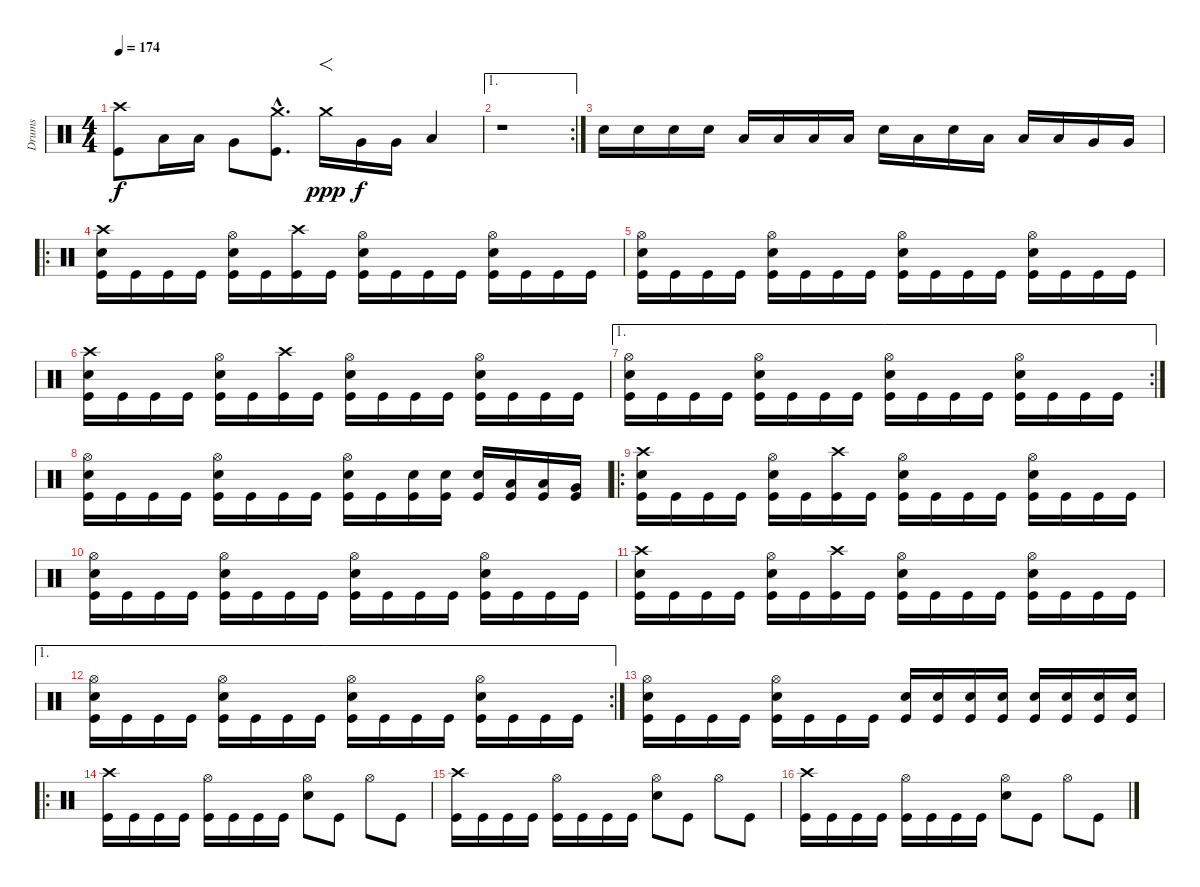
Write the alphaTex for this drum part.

\track ("Drums" "Drums") {instrument percussion}
\staff {score}
\articulation defaults
\ts (4 4)
\tempo 174
\clef neutral
\ks c
("Crash high (hit)" "Kick (hit)").8{dy f} "Low Tom (hit)".16 "Low Tom (hit)".16 "Very Low Tom (hit)".8 ("Crash medium (hit)"{hac} "Kick (hit)"{hac}).8{d} "Crash medium (hit)".16{f dy ppp} "Very Low Tom (hit)".16{dy f} "Very Low Tom (hit)".16 "Low Floor Tom (hit)".4 |
\ae 1
\rc 2
r.1 |
"Electric Snare (hit)".16 "Electric Snare (hit)".16 "Electric Snare (hit)".16 "Electric Snare (hit)".16 "Low Tom (hit)".16 "Low Tom (hit)".16 "Low Tom (hit)".16 "Low Tom (hit)".16 "Electric Snare (hit)".16 "Low Tom (hit)".16 "Electric Snare (hit)".16 "Low Tom (hit)".16 "Low Tom (hit)".16 "Low Tom (hit)".16 "Very Low Tom (hit)".16 "Very Low Tom (hit)".16 |
\ro
("Crash high (hit)" "Electric Snare (hit)" "Kick (hit)").16 "Kick (hit)".16 "Kick (hit)".16 "Kick (hit)".16 ("Hi-Hat (open)" "Electric Snare (hit)" "Kick (hit)").16 "Kick (hit)".16 ("Crash high (hit)" "Kick (hit)").16 "Kick (hit)".16 ("Hi-Hat (open)" "Electric Snare (hit)" "Kick (hit)").16 "Kick (hit)".16 "Kick (hit)".16 "Kick (hit)".16 ("Hi-Hat (open)" "Electric Snare (hit)" "Kick (hit)").16 "Kick (hit)".16 "Kick (hit)".16 "Kick (hit)".16 |
("Hi-Hat (open)" "Electric Snare (hit)" "Kick (hit)").16 "Kick (hit)".16 "Kick (hit)".16 "Kick (hit)".16 ("Hi-Hat (open)" "Electric Snare (hit)" "Kick (hit)").16 "Kick (hit)".16 "Kick (hit)".16 "Kick (hit)".16 ("Hi-Hat (open)" "Electric Snare (hit)" "Kick (hit)").16 "Kick (hit)".16 "Kick (hit)".16 "Kick (hit)".16 ("Hi-Hat (open)" "Electric Snare (hit)" "Kick (hit)").16 "Kick (hit)".16 "Kick (hit)".16 "Kick (hit)".16 |
("Crash high (hit)" "Electric Snare (hit)" "Kick (hit)").16 "Kick (hit)".16 "Kick (hit)".16 "Kick (hit)".16 ("Hi-Hat (open)" "Electric Snare (hit)" "Kick (hit)").16 "Kick (hit)".16 ("Crash high (hit)" "Kick (hit)").16 "Kick (hit)".16 ("Hi-Hat (open)" "Electric Snare (hit)" "Kick (hit)").16 "Kick (hit)".16 "Kick (hit)".16 "Kick (hit)".16 ("Hi-Hat (open)" "Electric Snare (hit)" "Kick (hit)").16 "Kick (hit)".16 "Kick (hit)".16 "Kick (hit)".16 |
\ae 1
\rc 2
("Hi-Hat (open)" "Electric Snare (hit)" "Kick (hit)").16 "Kick (hit)".16 "Kick (hit)".16 "Kick (hit)".16 ("Hi-Hat (open)" "Electric Snare (hit)" "Kick (hit)").16 "Kick (hit)".16 "Kick (hit)".16 "Kick (hit)".16 ("Hi-Hat (open)" "Electric Snare (hit)" "Kick (hit)").16 "Kick (hit)".16 "Kick (hit)".16 "Kick (hit)".16 ("Hi-Hat (open)" "Electric Snare (hit)" "Kick (hit)").16 "Kick (hit)".16 "Kick (hit)".16 "Kick (hit)".16 |
("Hi-Hat (open)" "Electric Snare (hit)" "Kick (hit)").16 "Kick (hit)".16 "Kick (hit)".16 "Kick (hit)".16 ("Hi-Hat (open)" "Electric Snare (hit)" "Kick (hit)").16 "Kick (hit)".16 "Kick (hit)".16 "Kick (hit)".16 ("Hi-Hat (open)" "Electric Snare (hit)" "Kick (hit)").16 "Kick (hit)".16 ("Electric Snare (hit)" "Kick (hit)").16 ("Electric Snare (hit)" "Kick (hit)").16 ("Electric Snare (hit)" "Kick (hit)").16 ("Low Tom (hit)" "Kick (hit)").16 ("Low Tom (hit)" "Kick (hit)").16 ("Very Low Tom (hit)" "Kick (hit)").16 |
\ro
("Crash high (hit)" "Electric Snare (hit)" "Kick (hit)").16 "Kick (hit)".16 "Kick (hit)".16 "Kick (hit)".16 ("Hi-Hat (open)" "Electric Snare (hit)" "Kick (hit)").16 "Kick (hit)".16 ("Crash high (hit)" "Kick (hit)").16 "Kick (hit)".16 ("Hi-Hat (open)" "Electric Snare (hit)" "Kick (hit)").16 "Kick (hit)".16 "Kick (hit)".16 "Kick (hit)".16 ("Hi-Hat (open)" "Electric Snare (hit)" "Kick (hit)").16 "Kick (hit)".16 "Kick (hit)".16 "Kick (hit)".16 |
("Hi-Hat (open)" "Electric Snare (hit)" "Kick (hit)").16 "Kick (hit)".16 "Kick (hit)".16 "Kick (hit)".16 ("Hi-Hat (open)" "Electric Snare (hit)" "Kick (hit)").16 "Kick (hit)".16 "Kick (hit)".16 "Kick (hit)".16 ("Hi-Hat (open)" "Electric Snare (hit)" "Kick (hit)").16 "Kick (hit)".16 "Kick (hit)".16 "Kick (hit)".16 ("Hi-Hat (open)" "Electric Snare (hit)" "Kick (hit)").16 "Kick (hit)".16 "Kick (hit)".16 "Kick (hit)".16 |
("Crash high (hit)" "Electric Snare (hit)" "Kick (hit)").16 "Kick (hit)".16 "Kick (hit)".16 "Kick (hit)".16 ("Hi-Hat (open)" "Electric Snare (hit)" "Kick (hit)").16 "Kick (hit)".16 ("Crash high (hit)" "Kick (hit)").16 "Kick (hit)".16 ("Hi-Hat (open)" "Electric Snare (hit)" "Kick (hit)").16 "Kick (hit)".16 "Kick (hit)".16 "Kick (hit)".16 ("Hi-Hat (open)" "Electric Snare (hit)" "Kick (hit)").16 "Kick (hit)".16 "Kick (hit)".16 "Kick (hit)".16 |
\ae 1
\rc 2
("Hi-Hat (open)" "Electric Snare (hit)" "Kick (hit)").16 "Kick (hit)".16 "Kick (hit)".16 "Kick (hit)".16 ("Hi-Hat (open)" "Electric Snare (hit)" "Kick (hit)").16 "Kick (hit)".16 "Kick (hit)".16 "Kick (hit)".16 ("Hi-Hat (open)" "Electric Snare (hit)" "Kick (hit)").16 "Kick (hit)".16 "Kick (hit)".16 "Kick (hit)".16 ("Hi-Hat (open)" "Electric Snare (hit)" "Kick (hit)").16 "Kick (hit)".16 "Kick (hit)".16 "Kick (hit)".16 |
("Hi-Hat (open)" "Electric Snare (hit)" "Kick (hit)").16 "Kick (hit)".16 "Kick (hit)".16 "Kick (hit)".16 ("Hi-Hat (open)" "Electric Snare (hit)" "Kick (hit)").16 "Kick (hit)".16 "Kick (hit)".16 "Kick (hit)".16 ("Electric Snare (hit)" "Kick (hit)").16 ("Electric Snare (hit)" "Kick (hit)").16 ("Electric Snare (hit)" "Kick (hit)").16 ("Electric Snare (hit)" "Kick (hit)").16 ("Electric Snare (hit)" "Kick (hit)").16 ("Electric Snare (hit)" "Kick (hit)").16 ("Electric Snare (hit)" "Kick (hit)").16 ("Electric Snare (hit)" "Kick (hit)").16 |
\ro
("Crash high (hit)" "Kick (hit)").16 "Kick (hit)".16 "Kick (hit)".16 "Kick (hit)".16 ("Hi-Hat (open)" "Kick (hit)").16 "Kick (hit)".16 "Kick (hit)".16 "Kick (hit)".16 ("Hi-Hat (open)" "Electric Snare (hit)").8 "Kick (hit)".8 "Hi-Hat (open)".8 "Kick (hit)".8 |
("Crash high (hit)" "Kick (hit)").16 "Kick (hit)".16 "Kick (hit)".16 "Kick (hit)".16 ("Hi-Hat (open)" "Kick (hit)").16 "Kick (hit)".16 "Kick (hit)".16 "Kick (hit)".16 ("Hi-Hat (open)" "Electric Snare (hit)").8 "Kick (hit)".8 "Hi-Hat (open)".8 "Kick (hit)".8 |
("Crash high (hit)" "Kick (hit)").16 "Kick (hit)".16 "Kick (hit)".16 "Kick (hit)".16 ("Hi-Hat (open)" "Kick (hit)").16 "Kick (hit)".16 "Kick (hit)".16 "Kick (hit)".16 ("Hi-Hat (open)" "Electric Snare (hit)").8 "Kick (hit)".8 "Hi-Hat (open)".8 "Kick (hit)".8
